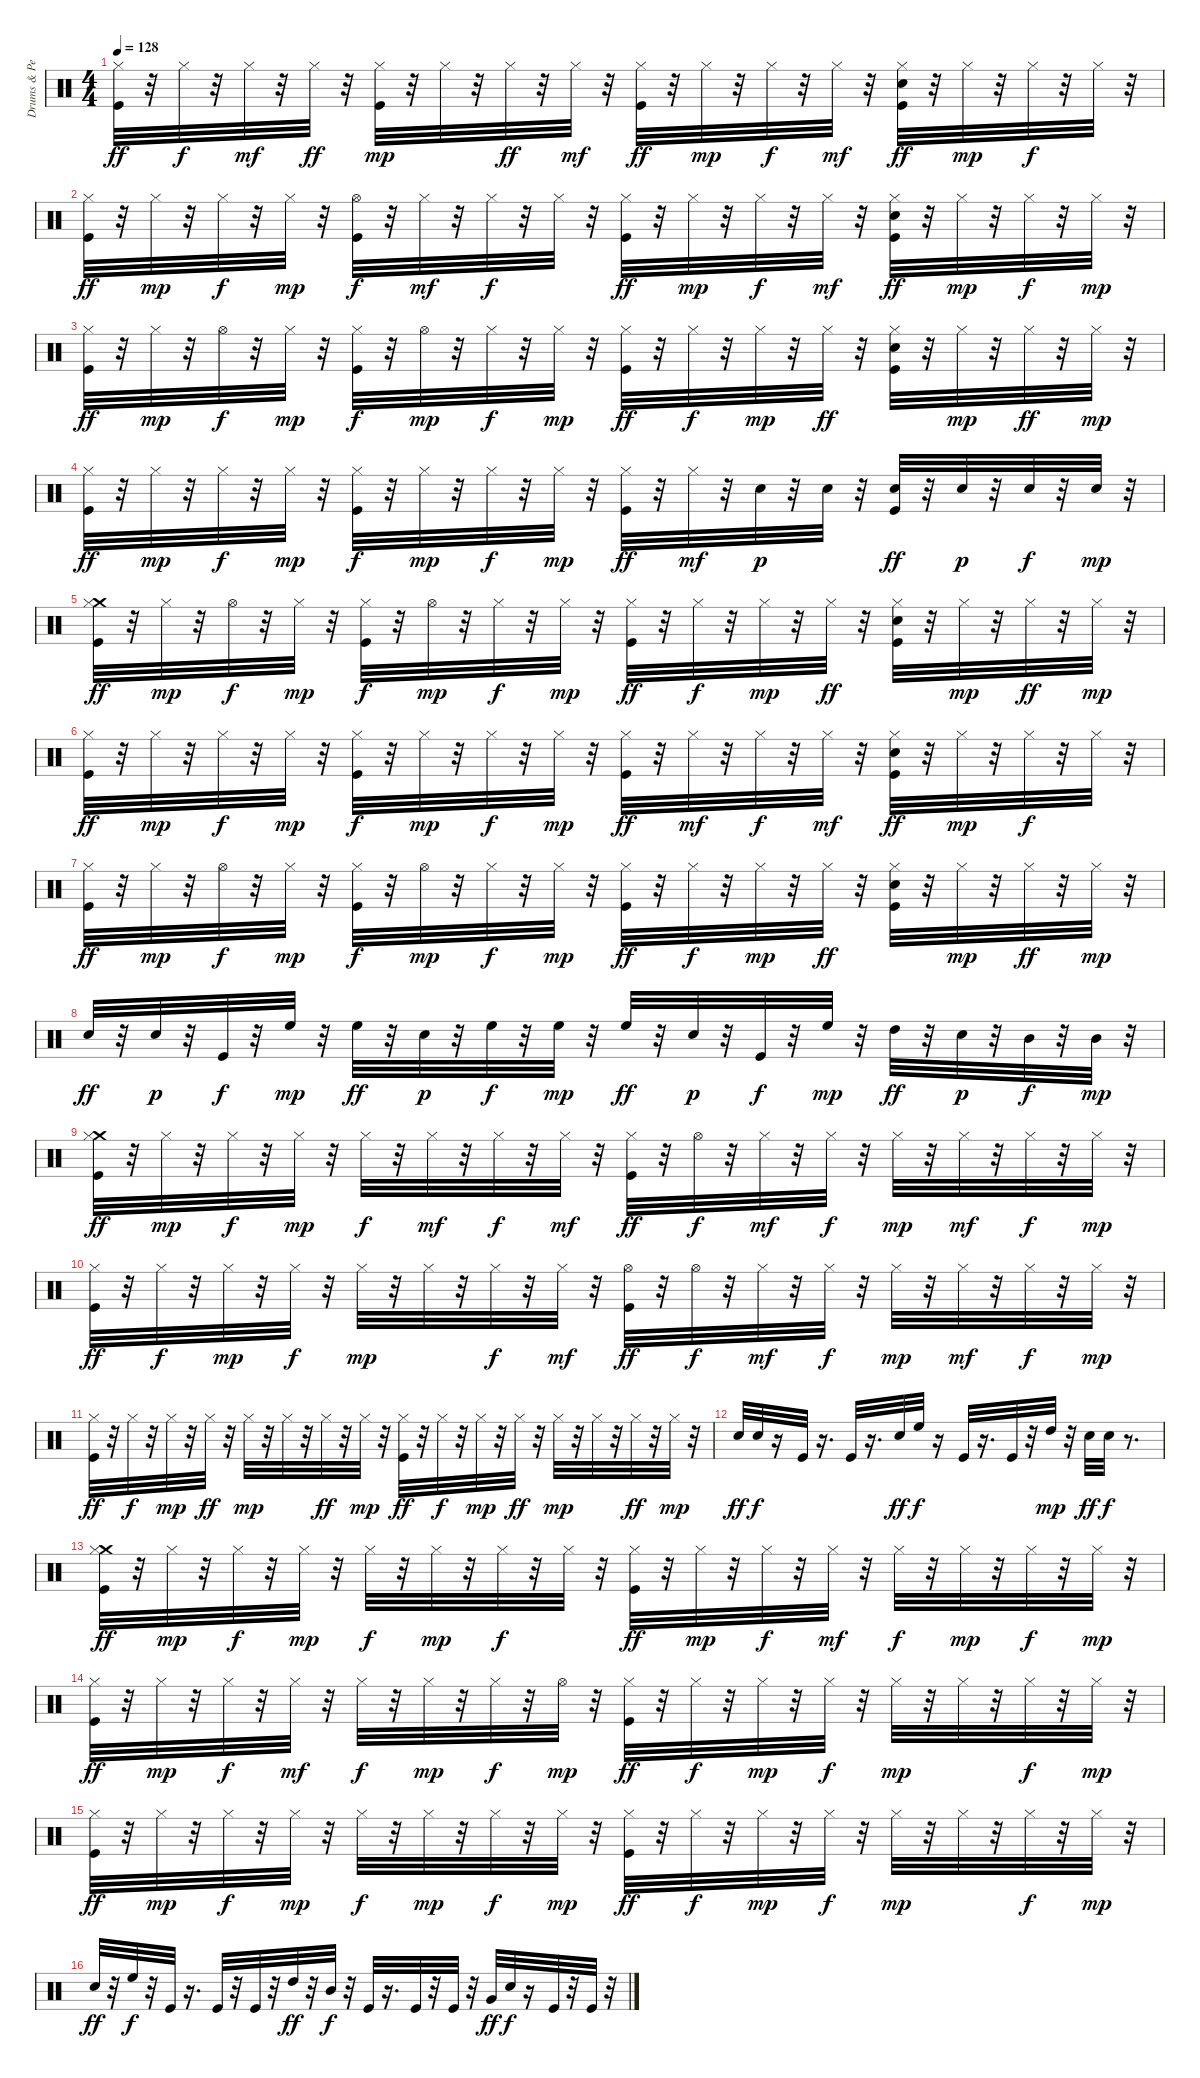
\track ("Drums & Percussion" "Drums & Pe") {instrument percussion}
\staff {score}
\articulation defaults
\ts (4 4)
\tempo 128
\clef neutral
\ks c
("Kick (hit)" "Hi-Hat (closed)").32{dy ff} r.32 "Hi-Hat (closed)".32{dy f} r.32 "Hi-Hat (closed)".32{dy mf} r.32 "Hi-Hat (closed)".32{dy ff} r.32 ("Kick (hit)" "Hi-Hat (closed)").32{dy mp} r.32 "Hi-Hat (closed)".32 r.32 "Hi-Hat (closed)".32{dy ff} r.32 "Hi-Hat (closed)".32{dy mf} r.32 ("Kick (hit)" "Hi-Hat (closed)").32{dy ff} r.32 "Hi-Hat (closed)".32{dy mp} r.32 "Hi-Hat (closed)".32{dy f} r.32 "Hi-Hat (closed)".32{dy mf} r.32 ("Kick (hit)" "Hi-Hat (closed)" "Electric Snare (hit)").32{dy ff} r.32 "Hi-Hat (closed)".32{dy mp} r.32 "Hi-Hat (closed)".32{dy f} r.32 "Hi-Hat (closed)".32 r.32 |
("Kick (hit)" "Hi-Hat (closed)").32{dy ff} r.32 "Hi-Hat (closed)".32{dy mp} r.32 "Hi-Hat (closed)".32{dy f} r.32 "Hi-Hat (closed)".32{dy mp} r.32 ("Kick (hit)" "Hi-Hat (open)").32{dy f} r.32 "Hi-Hat (closed)".32{dy mf} r.32 "Hi-Hat (closed)".32{dy f} r.32 "Hi-Hat (closed)".32 r.32 ("Kick (hit)" "Hi-Hat (closed)").32{dy ff} r.32 "Hi-Hat (closed)".32{dy mp} r.32 "Hi-Hat (closed)".32{dy f} r.32 "Hi-Hat (closed)".32{dy mf} r.32 ("Kick (hit)" "Hi-Hat (closed)" "Electric Snare (hit)").32{dy ff} r.32 "Hi-Hat (closed)".32{dy mp} r.32 "Hi-Hat (closed)".32{dy f} r.32 "Hi-Hat (closed)".32{dy mp} r.32 |
("Kick (hit)" "Hi-Hat (closed)").32{dy ff} r.32 "Hi-Hat (closed)".32{dy mp} r.32 "Hi-Hat (open)".32{dy f} r.32 "Hi-Hat (closed)".32{dy mp} r.32 ("Kick (hit)" "Hi-Hat (closed)").32{dy f} r.32 "Hi-Hat (open)".32{dy mp} r.32 "Hi-Hat (closed)".32{dy f} r.32 "Hi-Hat (closed)".32{dy mp} r.32 ("Kick (hit)" "Hi-Hat (closed)").32{dy ff} r.32 "Hi-Hat (closed)".32{dy f} r.32 "Hi-Hat (closed)".32{dy mp} r.32 "Hi-Hat (closed)".32{dy ff} r.32 ("Kick (hit)" "Hi-Hat (closed)" "Electric Snare (hit)").32 r.32 "Hi-Hat (closed)".32{dy mp} r.32 "Hi-Hat (closed)".32{dy ff} r.32 "Hi-Hat (closed)".32{dy mp} r.32 |
("Kick (hit)" "Hi-Hat (closed)").32{dy ff} r.32 "Hi-Hat (closed)".32{dy mp} r.32 "Hi-Hat (closed)".32{dy f} r.32 "Hi-Hat (closed)".32{dy mp} r.32 ("Kick (hit)" "Hi-Hat (closed)").32{dy f} r.32 "Hi-Hat (closed)".32{dy mp} r.32 "Hi-Hat (closed)".32{dy f} r.32 "Hi-Hat (closed)".32{dy mp} r.32 ("Kick (hit)" "Hi-Hat (closed)").32{dy ff} r.32 "Hi-Hat (closed)".32{dy mf} r.32 "Electric Snare (hit)".32{dy p} r.32 "Electric Snare (hit)".32 r.32 ("Kick (hit)" "Electric Snare (hit)").32{dy ff} r.32 "Electric Snare (hit)".32{dy p} r.32 "Electric Snare (hit)".32{dy f} r.32 "Electric Snare (hit)".32{dy mp} r.32 |
("Crash medium (hit)" "Kick (hit)" "Hi-Hat (closed)").32{dy ff} r.32 "Hi-Hat (closed)".32{dy mp} r.32 "Hi-Hat (open)".32{dy f} r.32 "Hi-Hat (closed)".32{dy mp} r.32 ("Kick (hit)" "Hi-Hat (closed)").32{dy f} r.32 "Hi-Hat (open)".32{dy mp} r.32 "Hi-Hat (closed)".32{dy f} r.32 "Hi-Hat (closed)".32{dy mp} r.32 ("Kick (hit)" "Hi-Hat (closed)").32{dy ff} r.32 "Hi-Hat (closed)".32{dy f} r.32 "Hi-Hat (closed)".32{dy mp} r.32 "Hi-Hat (closed)".32{dy ff} r.32 ("Kick (hit)" "Hi-Hat (closed)" "Electric Snare (hit)").32 r.32 "Hi-Hat (closed)".32{dy mp} r.32 "Hi-Hat (closed)".32{dy ff} r.32 "Hi-Hat (closed)".32{dy mp} r.32 |
("Kick (hit)" "Hi-Hat (closed)").32{dy ff} r.32 "Hi-Hat (closed)".32{dy mp} r.32 "Hi-Hat (closed)".32{dy f} r.32 "Hi-Hat (closed)".32{dy mp} r.32 ("Kick (hit)" "Hi-Hat (closed)").32{dy f} r.32 "Hi-Hat (closed)".32{dy mp} r.32 "Hi-Hat (closed)".32{dy f} r.32 "Hi-Hat (closed)".32{dy mp} r.32 ("Kick (hit)" "Hi-Hat (closed)").32{dy ff} r.32 "Hi-Hat (closed)".32{dy mf} r.32 "Hi-Hat (closed)".32{dy f} r.32 "Hi-Hat (closed)".32{dy mf} r.32 ("Kick (hit)" "Hi-Hat (closed)" "Electric Snare (hit)").32{dy ff} r.32 "Hi-Hat (closed)".32{dy mp} r.32 "Hi-Hat (closed)".32{dy f} r.32 "Hi-Hat (closed)".32 r.32 |
("Kick (hit)" "Hi-Hat (closed)").32{dy ff} r.32 "Hi-Hat (closed)".32{dy mp} r.32 "Hi-Hat (open)".32{dy f} r.32 "Hi-Hat (closed)".32{dy mp} r.32 ("Kick (hit)" "Hi-Hat (closed)").32{dy f} r.32 "Hi-Hat (open)".32{dy mp} r.32 "Hi-Hat (closed)".32{dy f} r.32 "Hi-Hat (closed)".32{dy mp} r.32 ("Kick (hit)" "Hi-Hat (closed)").32{dy ff} r.32 "Hi-Hat (closed)".32{dy f} r.32 "Hi-Hat (closed)".32{dy mp} r.32 "Hi-Hat (closed)".32{dy ff} r.32 ("Kick (hit)" "Hi-Hat (closed)" "Electric Snare (hit)").32 r.32 "Hi-Hat (closed)".32{dy mp} r.32 "Hi-Hat (closed)".32{dy ff} r.32 "Hi-Hat (closed)".32{dy mp} r.32 |
"Electric Snare (hit)".32{dy ff} r.32 "Electric Snare (hit)".32{dy p} r.32 "Kick (hit)".32{dy f} r.32 "High Floor Tom (hit)".32{dy mp} r.32 "High Floor Tom (hit)".32{dy ff} r.32 "Electric Snare (hit)".32{dy p} r.32 "High Floor Tom (hit)".32{dy f} r.32 "High Floor Tom (hit)".32{dy mp} r.32 "High Floor Tom (hit)".32{dy ff} r.32 "Electric Snare (hit)".32{dy p} r.32 "Kick (hit)".32{dy f} r.32 "High Floor Tom (hit)".32{dy mp} r.32 "High Tom (hit)".32{dy ff} r.32 "Electric Snare (hit)".32{dy p} r.32 "Mid Tom (hit)".32{dy f} r.32 "Mid Tom (hit)".32{dy mp} r.32 |
("Crash medium (hit)" "Kick (hit)" "Hi-Hat (closed)").32{dy ff} r.32 "Hi-Hat (closed)".32{dy mp} r.32 "Hi-Hat (closed)".32{dy f} r.32 "Hi-Hat (closed)".32{dy mp} r.32 "Hi-Hat (closed)".32{dy f} r.32 "Hi-Hat (closed)".32{dy mf} r.32 "Hi-Hat (closed)".32{dy f} r.32 "Hi-Hat (closed)".32{dy mf} r.32 ("Kick (hit)" "Hi-Hat (closed)").32{dy ff} r.32 "Hi-Hat (open)".32{dy f} r.32 "Hi-Hat (closed)".32{dy mf} r.32 "Hi-Hat (closed)".32{dy f} r.32 "Hi-Hat (closed)".32{dy mp} r.32 "Hi-Hat (closed)".32{dy mf} r.32 "Hi-Hat (closed)".32{dy f} r.32 "Hi-Hat (closed)".32{dy mp} r.32 |
("Kick (hit)" "Hi-Hat (closed)").32{dy ff} r.32 "Hi-Hat (closed)".32{dy f} r.32 "Hi-Hat (closed)".32{dy mp} r.32 "Hi-Hat (closed)".32{dy f} r.32 "Hi-Hat (closed)".32{dy mp} r.32 "Hi-Hat (closed)".32 r.32 "Hi-Hat (closed)".32{dy f} r.32 "Hi-Hat (closed)".32{dy mf} r.32 ("Kick (hit)" "Hi-Hat (open)").32{dy ff} r.32 "Hi-Hat (open)".32{dy f} r.32 "Hi-Hat (closed)".32{dy mf} r.32 "Hi-Hat (closed)".32{dy f} r.32 "Hi-Hat (closed)".32{dy mp} r.32 "Hi-Hat (closed)".32{dy mf} r.32 "Hi-Hat (closed)".32{dy f} r.32 "Hi-Hat (closed)".32{dy mp} r.32 |
("Kick (hit)" "Hi-Hat (closed)").32{dy ff} r.32 "Hi-Hat (closed)".32{dy f} r.32 "Hi-Hat (closed)".32{dy mp} r.32 "Hi-Hat (closed)".32{dy ff} r.32 "Hi-Hat (closed)".32{dy mp} r.32 "Hi-Hat (closed)".32 r.32 "Hi-Hat (closed)".32{dy ff} r.32 "Hi-Hat (closed)".32{dy mp} r.32 ("Kick (hit)" "Hi-Hat (closed)").32{dy ff} r.32 "Hi-Hat (closed)".32{dy f} r.32 "Hi-Hat (closed)".32{dy mp} r.32 "Hi-Hat (closed)".32{dy ff} r.32 "Hi-Hat (closed)".32{dy mp} r.32 "Hi-Hat (closed)".32 r.32 "Hi-Hat (closed)".32{dy ff} r.32 "Hi-Hat (closed)".32{dy mp} r.32 |
"Electric Snare (hit)".32{dy ff} "Electric Snare (hit)".32{dy f} r.16 "Kick (hit)".32 r.16{d} "Kick (hit)".32 r.16{d} "Electric Snare (hit)".32{dy ff} "High Floor Tom (hit)".32{dy f} r.16 "Kick (hit)".32 r.16{d} "Kick (hit)".32 r.32 "High Tom (hit)".32{dy mp} r.32 "Electric Snare (hit)".32{dy ff} "Electric Snare (hit)".32{dy f} r.8{d} |
("Crash medium (hit)" "Kick (hit)" "Hi-Hat (closed)").32{dy ff} r.32 "Hi-Hat (closed)".32{dy mp} r.32 "Hi-Hat (closed)".32{dy f} r.32 "Hi-Hat (closed)".32{dy mp} r.32 "Hi-Hat (closed)".32{dy f} r.32 "Hi-Hat (closed)".32{dy mp} r.32 "Hi-Hat (closed)".32{dy f} r.32 "Hi-Hat (closed)".32 r.32 ("Kick (hit)" "Hi-Hat (closed)").32{dy ff} r.32 "Hi-Hat (closed)".32{dy mp} r.32 "Hi-Hat (closed)".32{dy f} r.32 "Hi-Hat (closed)".32{dy mf} r.32 "Hi-Hat (closed)".32{dy f} r.32 "Hi-Hat (closed)".32{dy mp} r.32 "Hi-Hat (closed)".32{dy f} r.32 "Hi-Hat (closed)".32{dy mp} r.32 |
("Kick (hit)" "Hi-Hat (closed)").32{dy ff} r.32 "Hi-Hat (closed)".32{dy mp} r.32 "Hi-Hat (closed)".32{dy f} r.32 "Hi-Hat (closed)".32{dy mf} r.32 "Hi-Hat (closed)".32{dy f} r.32 "Hi-Hat (closed)".32{dy mp} r.32 "Hi-Hat (closed)".32{dy f} r.32 "Hi-Hat (open)".32{dy mp} r.32 ("Kick (hit)" "Hi-Hat (closed)").32{dy ff} r.32 "Hi-Hat (closed)".32{dy f} r.32 "Hi-Hat (closed)".32{dy mp} r.32 "Hi-Hat (closed)".32{dy f} r.32 "Hi-Hat (closed)".32{dy mp} r.32 "Hi-Hat (closed)".32 r.32 "Hi-Hat (closed)".32{dy f} r.32 "Hi-Hat (closed)".32{dy mp} r.32 |
("Kick (hit)" "Hi-Hat (closed)").32{dy ff} r.32 "Hi-Hat (closed)".32{dy mp} r.32 "Hi-Hat (closed)".32{dy f} r.32 "Hi-Hat (closed)".32{dy mp} r.32 "Hi-Hat (closed)".32{dy f} r.32 "Hi-Hat (closed)".32{dy mp} r.32 "Hi-Hat (closed)".32{dy f} r.32 "Hi-Hat (closed)".32{dy mp} r.32 ("Kick (hit)" "Hi-Hat (closed)").32{dy ff} r.32 "Hi-Hat (closed)".32{dy f} r.32 "Hi-Hat (closed)".32{dy mp} r.32 "Hi-Hat (closed)".32{dy f} r.32 "Hi-Hat (closed)".32{dy mp} r.32 "Hi-Hat (closed)".32 r.32 "Hi-Hat (closed)".32{dy f} r.32 "Hi-Hat (closed)".32{dy mp} r.32 |
"Electric Snare (hit)".32{dy ff} r.32 "High Floor Tom (hit)".32{dy f} r.32 "Kick (hit)".32 r.16{d} "Kick (hit)".32 r.32 "Kick (hit)".32 r.32 "High Tom (hit)".32{dy ff} r.32 "Mid Tom (hit)".32{dy f} r.32 "Kick (hit)".32 r.16{d} "Kick (hit)".32 r.32 "Kick (hit)".32 r.32 "Very Low Tom (hit)".32{dy ff} "Electric Snare (hit)".32{dy f} r.16 "Kick (hit)".32 r.32 "Kick (hit)".32 r.32
